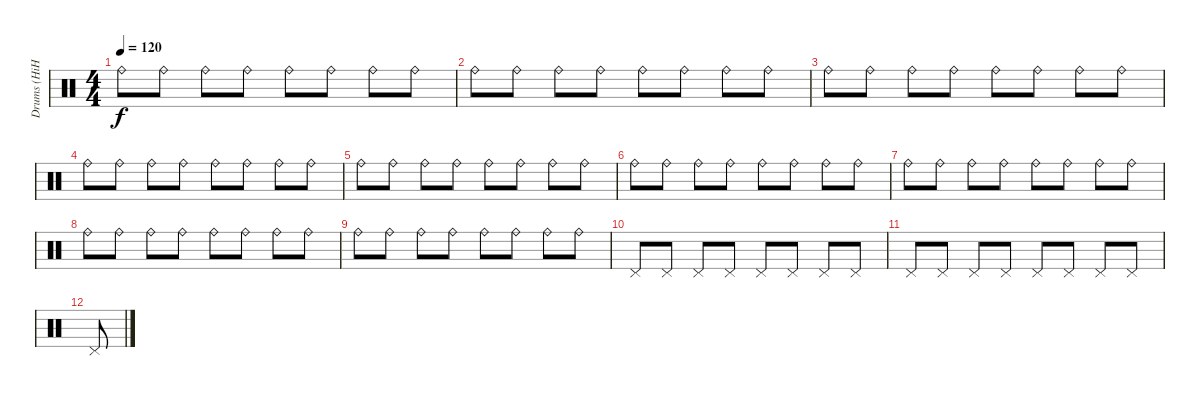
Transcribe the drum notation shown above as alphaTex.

\track ("Drums (HiHat)" "Drums (HiH") {instrument percussion}
\staff {score}
\articulation defaults
\ts (4 4)
\tempo 120
\clef neutral
\ks c "Ride (bell)".8{dy f} "Ride (bell)".8 "Ride (bell)".8 "Ride (bell)".8 "Ride (bell)".8 "Ride (bell)".8 "Ride (bell)".8 "Ride (bell)".8
|
"Ride (bell)".8 "Ride (bell)".8 "Ride (bell)".8 "Ride (bell)".8 "Ride (bell)".8 "Ride (bell)".8 "Ride (bell)".8 "Ride (bell)".8 |
"Ride (bell)".8 "Ride (bell)".8 "Ride (bell)".8 "Ride (bell)".8 "Ride (bell)".8 "Ride (bell)".8 "Ride (bell)".8 "Ride (bell)".8 |
"Ride (bell)".8 "Ride (bell)".8 "Ride (bell)".8 "Ride (bell)".8 "Ride (bell)".8 "Ride (bell)".8 "Ride (bell)".8 "Ride (bell)".8 |
"Ride (bell)".8 "Ride (bell)".8 "Ride (bell)".8 "Ride (bell)".8 "Ride (bell)".8 "Ride (bell)".8 "Ride (bell)".8 "Ride (bell)".8 |
"Ride (bell)".8 "Ride (bell)".8 "Ride (bell)".8 "Ride (bell)".8 "Ride (bell)".8 "Ride (bell)".8 "Ride (bell)".8 "Ride (bell)".8 |
"Ride (bell)".8 "Ride (bell)".8 "Ride (bell)".8 "Ride (bell)".8 "Ride (bell)".8 "Ride (bell)".8 "Ride (bell)".8 "Ride (bell)".8 |
"Ride (bell)".8 "Ride (bell)".8 "Ride (bell)".8 "Ride (bell)".8 "Ride (bell)".8 "Ride (bell)".8 "Ride (bell)".8 "Ride (bell)".8 |
"Ride (bell)".8 "Ride (bell)".8 "Ride (bell)".8 "Ride (bell)".8 "Ride (bell)".8 "Ride (bell)".8 "Ride (bell)".8 "Ride (bell)".8 |
"Pedal Hi-Hat (hit)".8 "Pedal Hi-Hat (hit)".8 "Pedal Hi-Hat (hit)".8 "Pedal Hi-Hat (hit)".8 "Pedal Hi-Hat (hit)".8 "Pedal Hi-Hat (hit)".8 "Pedal Hi-Hat (hit)".8 "Pedal Hi-Hat (hit)".8 |
"Pedal Hi-Hat (hit)".8 "Pedal Hi-Hat (hit)".8 "Pedal Hi-Hat (hit)".8 "Pedal Hi-Hat (hit)".8 "Pedal Hi-Hat (hit)".8 "Pedal Hi-Hat (hit)".8 "Pedal Hi-Hat (hit)".8 "Pedal Hi-Hat (hit)".8 |
"Pedal Hi-Hat (hit)".8
